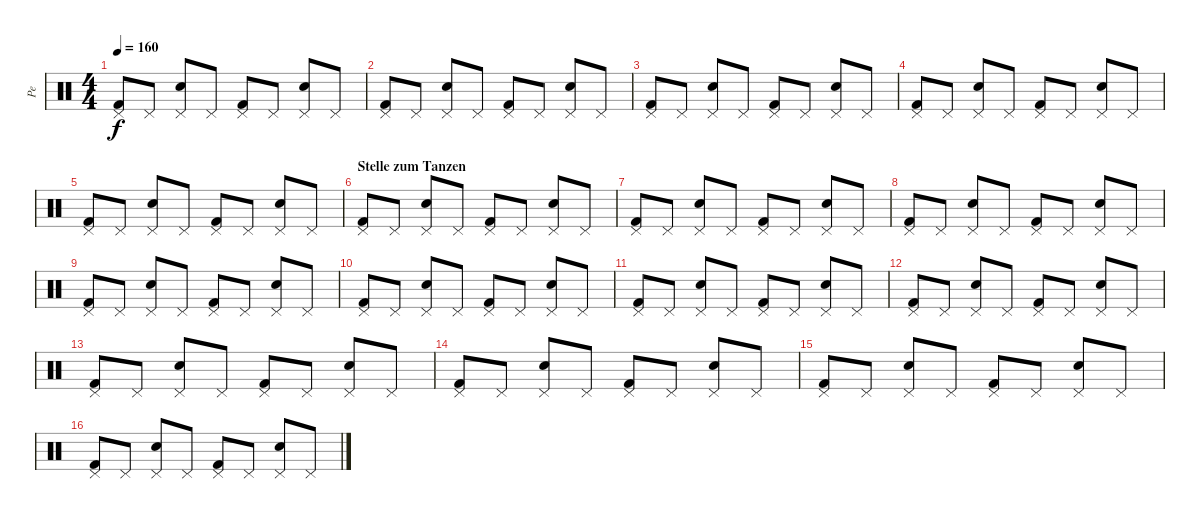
\track ("Pe" "Pe") {instrument percussion}
\staff {score}
\articulation defaults
\ts (4 4)
\tempo 160
\clef neutral
\ks c
("Pedal Hi-Hat (hit)" "Kick (hit) 2").8{dy f} "Pedal Hi-Hat (hit)".8 ("Pedal Hi-Hat (hit)" "Electric Snare (hit)").8 "Pedal Hi-Hat (hit)".8 ("Pedal Hi-Hat (hit)" "Kick (hit) 2").8 "Pedal Hi-Hat (hit)".8 ("Pedal Hi-Hat (hit)" "Electric Snare (hit)").8 "Pedal Hi-Hat (hit)".8 |
("Pedal Hi-Hat (hit)" "Kick (hit) 2").8 "Pedal Hi-Hat (hit)".8 ("Pedal Hi-Hat (hit)" "Electric Snare (hit)").8 "Pedal Hi-Hat (hit)".8 ("Pedal Hi-Hat (hit)" "Kick (hit) 2").8 "Pedal Hi-Hat (hit)".8 ("Pedal Hi-Hat (hit)" "Electric Snare (hit)").8 "Pedal Hi-Hat (hit)".8 |
("Pedal Hi-Hat (hit)" "Kick (hit) 2").8 "Pedal Hi-Hat (hit)".8 ("Pedal Hi-Hat (hit)" "Electric Snare (hit)").8 "Pedal Hi-Hat (hit)".8 ("Pedal Hi-Hat (hit)" "Kick (hit) 2").8 "Pedal Hi-Hat (hit)".8 ("Pedal Hi-Hat (hit)" "Electric Snare (hit)").8 "Pedal Hi-Hat (hit)".8 |
("Pedal Hi-Hat (hit)" "Kick (hit) 2").8 "Pedal Hi-Hat (hit)".8 ("Pedal Hi-Hat (hit)" "Electric Snare (hit)").8 "Pedal Hi-Hat (hit)".8 ("Pedal Hi-Hat (hit)" "Kick (hit) 2").8 "Pedal Hi-Hat (hit)".8 ("Pedal Hi-Hat (hit)" "Electric Snare (hit)").8 "Pedal Hi-Hat (hit)".8 |
("Pedal Hi-Hat (hit)" "Kick (hit) 2").8 "Pedal Hi-Hat (hit)".8 ("Pedal Hi-Hat (hit)" "Electric Snare (hit)").8 "Pedal Hi-Hat (hit)".8 ("Pedal Hi-Hat (hit)" "Kick (hit) 2").8 "Pedal Hi-Hat (hit)".8 ("Pedal Hi-Hat (hit)" "Electric Snare (hit)").8 "Pedal Hi-Hat (hit)".8 |
\section ("" "Stelle zum Tanzen")
("Pedal Hi-Hat (hit)" "Kick (hit) 2").8 "Pedal Hi-Hat (hit)".8 ("Pedal Hi-Hat (hit)" "Electric Snare (hit)").8 "Pedal Hi-Hat (hit)".8 ("Pedal Hi-Hat (hit)" "Kick (hit) 2").8 "Pedal Hi-Hat (hit)".8 ("Pedal Hi-Hat (hit)" "Electric Snare (hit)").8 "Pedal Hi-Hat (hit)".8 |
("Pedal Hi-Hat (hit)" "Kick (hit) 2").8 "Pedal Hi-Hat (hit)".8 ("Pedal Hi-Hat (hit)" "Electric Snare (hit)").8 "Pedal Hi-Hat (hit)".8 ("Pedal Hi-Hat (hit)" "Kick (hit) 2").8 "Pedal Hi-Hat (hit)".8 ("Pedal Hi-Hat (hit)" "Electric Snare (hit)").8 "Pedal Hi-Hat (hit)".8 |
("Pedal Hi-Hat (hit)" "Kick (hit) 2").8 "Pedal Hi-Hat (hit)".8 ("Pedal Hi-Hat (hit)" "Electric Snare (hit)").8 "Pedal Hi-Hat (hit)".8 ("Pedal Hi-Hat (hit)" "Kick (hit) 2").8 "Pedal Hi-Hat (hit)".8 ("Pedal Hi-Hat (hit)" "Electric Snare (hit)").8 "Pedal Hi-Hat (hit)".8 |
("Pedal Hi-Hat (hit)" "Kick (hit) 2").8 "Pedal Hi-Hat (hit)".8 ("Pedal Hi-Hat (hit)" "Electric Snare (hit)").8 "Pedal Hi-Hat (hit)".8 ("Pedal Hi-Hat (hit)" "Kick (hit) 2").8 "Pedal Hi-Hat (hit)".8 ("Pedal Hi-Hat (hit)" "Electric Snare (hit)").8 "Pedal Hi-Hat (hit)".8 |
("Pedal Hi-Hat (hit)" "Kick (hit) 2").8 "Pedal Hi-Hat (hit)".8 ("Pedal Hi-Hat (hit)" "Electric Snare (hit)").8 "Pedal Hi-Hat (hit)".8 ("Pedal Hi-Hat (hit)" "Kick (hit) 2").8 "Pedal Hi-Hat (hit)".8 ("Pedal Hi-Hat (hit)" "Electric Snare (hit)").8 "Pedal Hi-Hat (hit)".8 |
("Pedal Hi-Hat (hit)" "Kick (hit) 2").8 "Pedal Hi-Hat (hit)".8 ("Pedal Hi-Hat (hit)" "Electric Snare (hit)").8 "Pedal Hi-Hat (hit)".8 ("Pedal Hi-Hat (hit)" "Kick (hit) 2").8 "Pedal Hi-Hat (hit)".8 ("Pedal Hi-Hat (hit)" "Electric Snare (hit)").8 "Pedal Hi-Hat (hit)".8 |
("Pedal Hi-Hat (hit)" "Kick (hit) 2").8 "Pedal Hi-Hat (hit)".8 ("Pedal Hi-Hat (hit)" "Electric Snare (hit)").8 "Pedal Hi-Hat (hit)".8 ("Pedal Hi-Hat (hit)" "Kick (hit) 2").8 "Pedal Hi-Hat (hit)".8 ("Pedal Hi-Hat (hit)" "Electric Snare (hit)").8 "Pedal Hi-Hat (hit)".8 |
("Pedal Hi-Hat (hit)" "Kick (hit) 2").8 "Pedal Hi-Hat (hit)".8 ("Pedal Hi-Hat (hit)" "Electric Snare (hit)").8 "Pedal Hi-Hat (hit)".8 ("Pedal Hi-Hat (hit)" "Kick (hit) 2").8 "Pedal Hi-Hat (hit)".8 ("Pedal Hi-Hat (hit)" "Electric Snare (hit)").8 "Pedal Hi-Hat (hit)".8 |
("Pedal Hi-Hat (hit)" "Kick (hit) 2").8 "Pedal Hi-Hat (hit)".8 ("Pedal Hi-Hat (hit)" "Electric Snare (hit)").8 "Pedal Hi-Hat (hit)".8 ("Pedal Hi-Hat (hit)" "Kick (hit) 2").8 "Pedal Hi-Hat (hit)".8 ("Pedal Hi-Hat (hit)" "Electric Snare (hit)").8 "Pedal Hi-Hat (hit)".8 |
("Pedal Hi-Hat (hit)" "Kick (hit) 2").8 "Pedal Hi-Hat (hit)".8 ("Pedal Hi-Hat (hit)" "Electric Snare (hit)").8 "Pedal Hi-Hat (hit)".8 ("Pedal Hi-Hat (hit)" "Kick (hit) 2").8 "Pedal Hi-Hat (hit)".8 ("Pedal Hi-Hat (hit)" "Electric Snare (hit)").8 "Pedal Hi-Hat (hit)".8 |
("Pedal Hi-Hat (hit)" "Kick (hit) 2").8 "Pedal Hi-Hat (hit)".8 ("Pedal Hi-Hat (hit)" "Electric Snare (hit)").8 "Pedal Hi-Hat (hit)".8 ("Pedal Hi-Hat (hit)" "Kick (hit) 2").8 "Pedal Hi-Hat (hit)".8 ("Pedal Hi-Hat (hit)" "Electric Snare (hit)").8 "Pedal Hi-Hat (hit)".8
